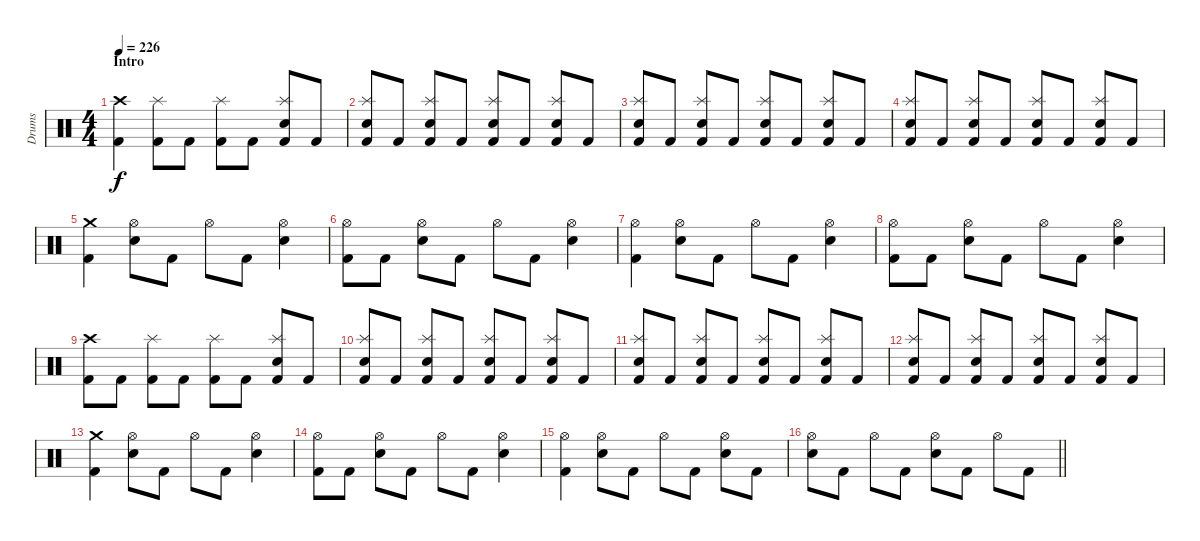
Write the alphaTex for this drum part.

\track ("Drums" "Drums") {instrument percussion}
\staff {score}
\articulation defaults
\ts (4 4)
\section ("" "Intro")
\tempo 226
\clef neutral
\ks c
("Crash high (hit)" "Kick (hit) 2").4{dy f} ("Splash (hit)" "Kick (hit) 2").8 "Kick (hit) 2".8 ("Splash (hit)" "Kick (hit) 2").8 "Kick (hit) 2".8 ("Splash (hit)" "Snare (hit) 2" "Kick (hit) 2").8 "Kick (hit) 2".8 |
("Splash (hit)" "Snare (hit) 2" "Kick (hit) 2").8 "Kick (hit) 2".8 ("Splash (hit)" "Snare (hit) 2" "Kick (hit) 2").8 "Kick (hit) 2".8 ("Splash (hit)" "Snare (hit) 2" "Kick (hit) 2").8 "Kick (hit) 2".8 ("Splash (hit)" "Snare (hit) 2" "Kick (hit) 2").8 "Kick (hit) 2".8 |
("Splash (hit)" "Snare (hit) 2" "Kick (hit) 2").8 "Kick (hit) 2".8 ("Splash (hit)" "Snare (hit) 2" "Kick (hit) 2").8 "Kick (hit) 2".8 ("Splash (hit)" "Snare (hit) 2" "Kick (hit) 2").8 "Kick (hit) 2".8 ("Splash (hit)" "Snare (hit) 2" "Kick (hit) 2").8 "Kick (hit) 2".8 |
("Splash (hit)" "Snare (hit) 2" "Kick (hit) 2").8 "Kick (hit) 2".8 ("Splash (hit)" "Snare (hit) 2" "Kick (hit) 2").8 "Kick (hit) 2".8 ("Splash (hit)" "Snare (hit) 2" "Kick (hit) 2").8 "Kick (hit) 2".8 ("Splash (hit)" "Snare (hit) 2" "Kick (hit) 2").8 "Kick (hit) 2".8 |
("Crash medium (hit)" "Kick (hit) 2").4 ("Hi-Hat (open)" "Snare (hit) 2").8 "Kick (hit) 2".8 "Hi-Hat (open)".8 "Kick (hit) 2".8 ("Hi-Hat (open)" "Snare (hit) 2").4 |
("Hi-Hat (open)" "Kick (hit) 2").8 "Kick (hit) 2".8 ("Hi-Hat (open)" "Snare (hit) 2").8 "Kick (hit) 2".8 "Hi-Hat (open)".8 "Kick (hit) 2".8 ("Hi-Hat (open)" "Snare (hit) 2").4 |
("Hi-Hat (open)" "Kick (hit) 2").4 ("Hi-Hat (open)" "Snare (hit) 2").8 "Kick (hit) 2".8 "Hi-Hat (open)".8 "Kick (hit) 2".8 ("Hi-Hat (open)" "Snare (hit) 2").4 |
("Hi-Hat (open)" "Kick (hit) 2").8 "Kick (hit) 2".8 ("Hi-Hat (open)" "Snare (hit) 2").8 "Kick (hit) 2".8 "Hi-Hat (open)".8 "Kick (hit) 2".8 ("Hi-Hat (open)" "Snare (hit) 2").4 |
("Crash high (hit)" "Kick (hit) 2").8 "Kick (hit) 2".8 ("Splash (hit)" "Kick (hit) 2").8 "Kick (hit) 2".8 ("Splash (hit)" "Kick (hit) 2").8 "Kick (hit) 2".8 ("Splash (hit)" "Snare (hit) 2" "Kick (hit) 2").8 "Kick (hit) 2".8 |
("Splash (hit)" "Snare (hit) 2" "Kick (hit) 2").8 "Kick (hit) 2".8 ("Splash (hit)" "Snare (hit) 2" "Kick (hit) 2").8 "Kick (hit) 2".8 ("Splash (hit)" "Snare (hit) 2" "Kick (hit) 2").8 "Kick (hit) 2".8 ("Splash (hit)" "Snare (hit) 2" "Kick (hit) 2").8 "Kick (hit) 2".8 |
("Splash (hit)" "Snare (hit) 2" "Kick (hit) 2").8 "Kick (hit) 2".8 ("Splash (hit)" "Snare (hit) 2" "Kick (hit) 2").8 "Kick (hit) 2".8 ("Splash (hit)" "Snare (hit) 2" "Kick (hit) 2").8 "Kick (hit) 2".8 ("Splash (hit)" "Snare (hit) 2" "Kick (hit) 2").8 "Kick (hit) 2".8 |
("Splash (hit)" "Snare (hit) 2" "Kick (hit) 2").8 "Kick (hit) 2".8 ("Splash (hit)" "Snare (hit) 2" "Kick (hit) 2").8 "Kick (hit) 2".8 ("Splash (hit)" "Snare (hit) 2" "Kick (hit) 2").8 "Kick (hit) 2".8 ("Splash (hit)" "Snare (hit) 2" "Kick (hit) 2").8 "Kick (hit) 2".8 |
("Crash medium (hit)" "Kick (hit) 2").4 ("Hi-Hat (open)" "Snare (hit) 2").8 "Kick (hit) 2".8 "Hi-Hat (open)".8 "Kick (hit) 2".8 ("Hi-Hat (open)" "Snare (hit) 2").4 |
("Hi-Hat (open)" "Kick (hit) 2").8 "Kick (hit) 2".8 ("Hi-Hat (open)" "Snare (hit) 2").8 "Kick (hit) 2".8 "Hi-Hat (open)".8 "Kick (hit) 2".8 ("Hi-Hat (open)" "Snare (hit) 2").4 |
("Hi-Hat (open)" "Kick (hit) 2").4 ("Hi-Hat (open)" "Snare (hit) 2").8 "Kick (hit) 2".8 "Hi-Hat (open)".8 "Kick (hit) 2".8 ("Hi-Hat (open)" "Snare (hit) 2").8 "Kick (hit) 2".8 |
\barLineRight lightlight
("Hi-Hat (open)" "Snare (hit) 2").8 "Kick (hit) 2".8 "Hi-Hat (open)".8 "Kick (hit) 2".8 ("Hi-Hat (open)" "Snare (hit) 2").8 "Kick (hit) 2".8 "Hi-Hat (open)".8 "Kick (hit) 2".8
